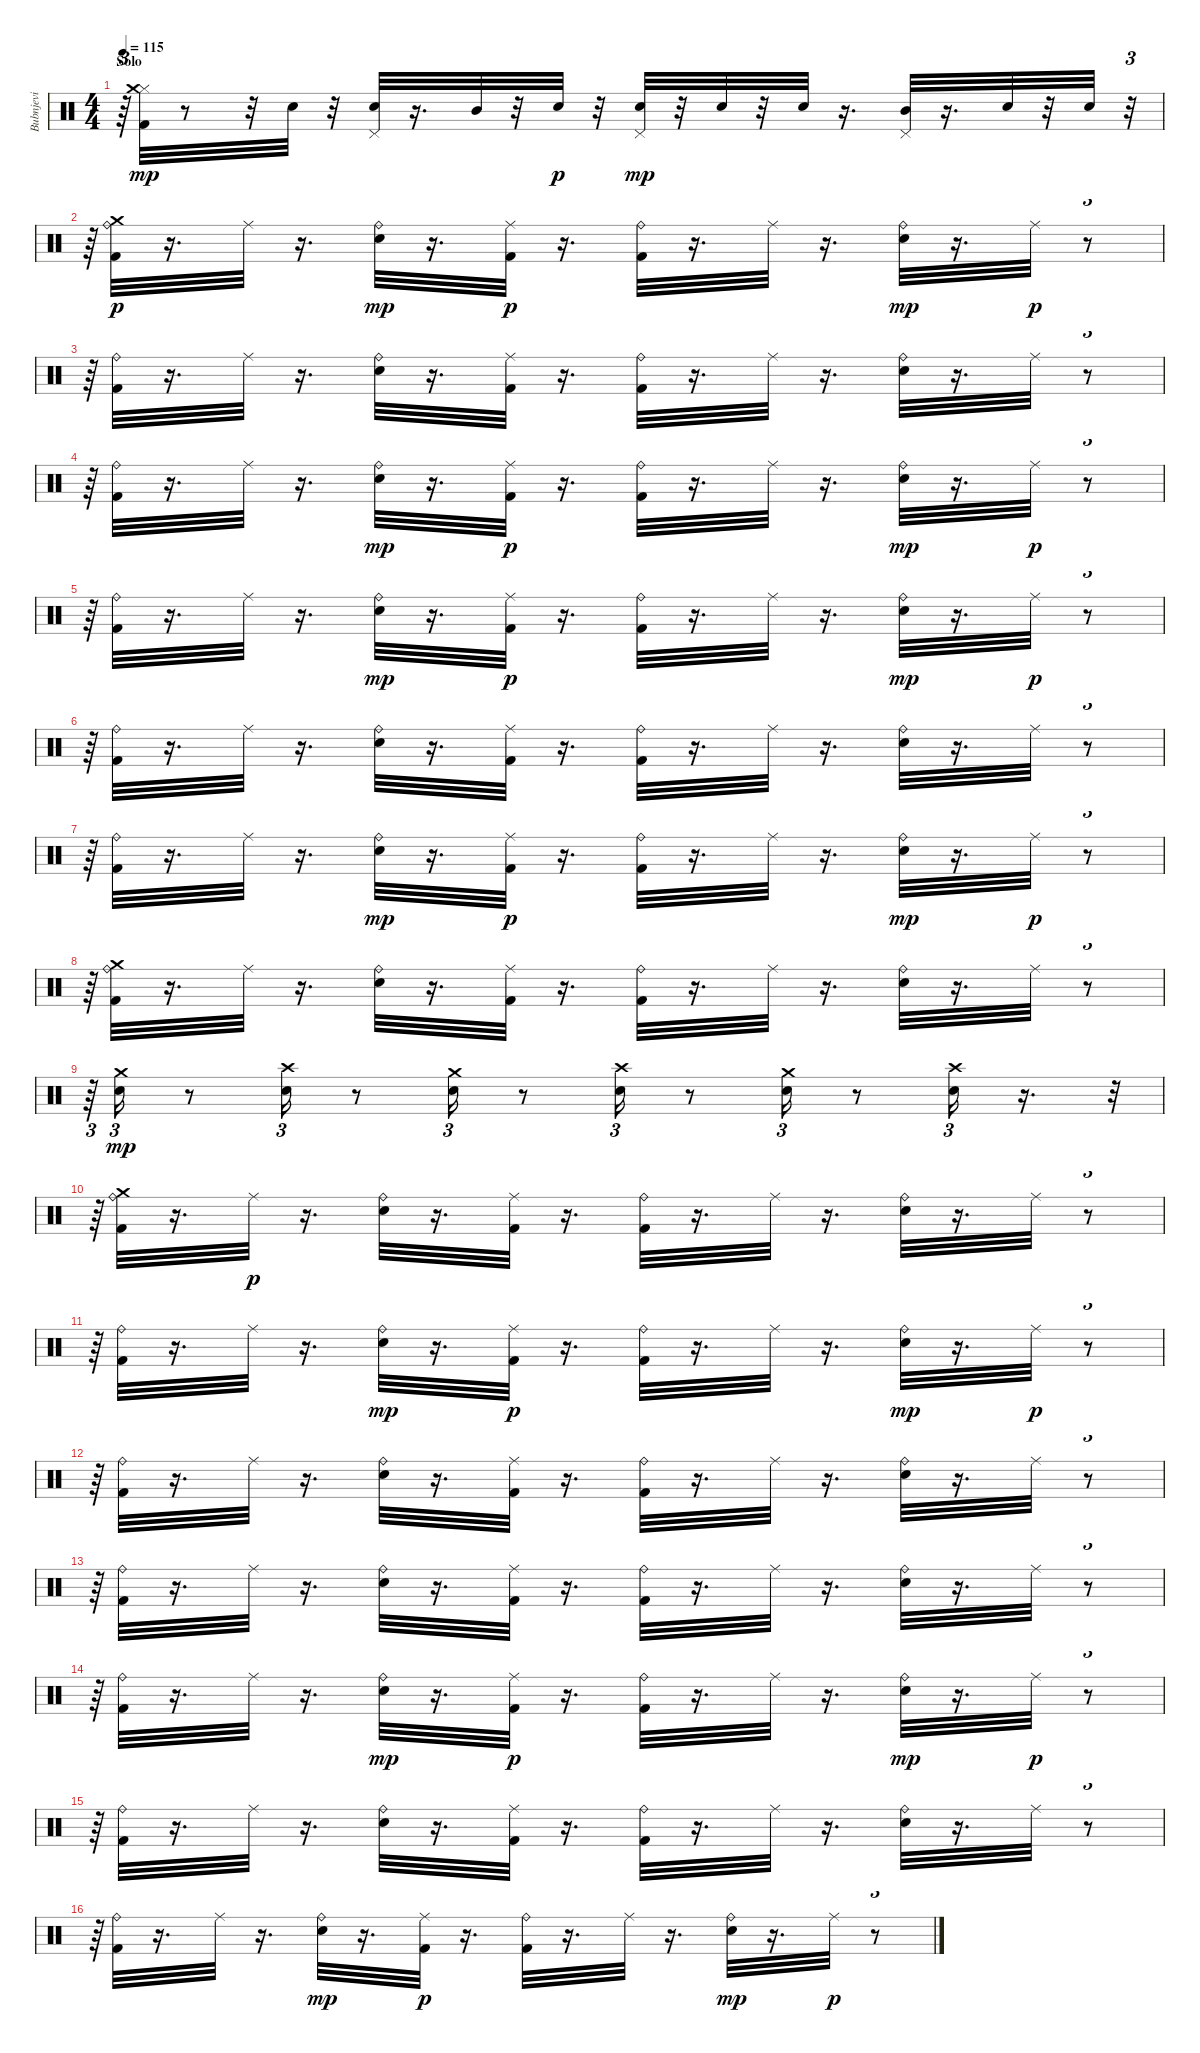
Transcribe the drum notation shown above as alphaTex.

\track ("Bubnjevi" "Bubnjevi") {instrument percussion}
\staff {score}
\articulation defaults
\ts (4 4)
\section ("" "Solo")
\tempo 115
\clef neutral
\ks c
r.64{tu (3 2) dy p} ("Kick (hit) 2" "Hi-Hat (closed)" "Crash medium (hit)").32{dy mp} r.8 r.32 "Electric Snare (hit)".32 r.32 ("Pedal Hi-Hat (hit)" "Electric Snare (hit)").32 r.16{d} "Mid Tom (hit)".32 r.32 "Electric Snare (hit)".32{dy p} r.32 ("Electric Snare (hit)" "Pedal Hi-Hat (hit)").32{dy mp} r.32 "Electric Snare (hit)".32 r.32 "Electric Snare (hit)".32 r.16{d} ("Mid Tom (hit)" "Pedal Hi-Hat (hit)").32 r.16{d} "Electric Snare (hit)".32 r.32 "Electric Snare (hit)".32 r.32{tu (3 2)} |
r.64{tu (3 2)} ("Crash medium (hit)" "Ride (bell)" "Kick (hit) 2").32{dy p} r.16{d} "Ride (middle)".32 r.16{d} ("Ride (bell)" "Electric Snare (hit)").32{dy mp} r.16{d} ("Ride (middle)" "Kick (hit) 2").32{dy p} r.16{d} ("Ride (bell)" "Kick (hit) 2").32 r.16{d} "Ride (middle)".32 r.16{d} ("Ride (bell)" "Electric Snare (hit)").32{dy mp} r.16{d} "Ride (middle)".32{dy p} r.8{tu (3 2)} |
r.64{tu (3 2)} ("Kick (hit) 2" "Ride (bell)").32 r.16{d} "Ride (middle)".32 r.16{d} ("Electric Snare (hit)" "Ride (bell)").32 r.16{d} ("Kick (hit) 2" "Ride (middle)").32 r.16{d} ("Kick (hit) 2" "Ride (bell)").32 r.16{d} "Ride (middle)".32 r.16{d} ("Electric Snare (hit)" "Ride (bell)").32 r.16{d} "Ride (middle)".32 r.8{tu (3 2)} |
r.64{tu (3 2)} ("Ride (bell)" "Kick (hit) 2").32 r.16{d} "Ride (middle)".32 r.16{d} ("Ride (bell)" "Electric Snare (hit)").32{dy mp} r.16{d} ("Ride (middle)" "Kick (hit) 2").32{dy p} r.16{d} ("Ride (bell)" "Kick (hit) 2").32 r.16{d} "Ride (middle)".32 r.16{d} ("Ride (bell)" "Electric Snare (hit)").32{dy mp} r.16{d} "Ride (middle)".32{dy p} r.8{tu (3 2)} |
r.64{tu (3 2)} ("Ride (bell)" "Kick (hit) 2").32 r.16{d} "Ride (middle)".32 r.16{d} ("Ride (bell)" "Electric Snare (hit)").32{dy mp} r.16{d} ("Ride (middle)" "Kick (hit) 2").32{dy p} r.16{d} ("Ride (bell)" "Kick (hit) 2").32 r.16{d} "Ride (middle)".32 r.16{d} ("Ride (bell)" "Electric Snare (hit)").32{dy mp} r.16{d} "Ride (middle)".32{dy p} r.8{tu (3 2)} |
r.64{tu (3 2)} ("Kick (hit) 2" "Ride (bell)").32 r.16{d} "Ride (middle)".32 r.16{d} ("Electric Snare (hit)" "Ride (bell)").32 r.16{d} ("Kick (hit) 2" "Ride (middle)").32 r.16{d} ("Kick (hit) 2" "Ride (bell)").32 r.16{d} "Ride (middle)".32 r.16{d} ("Electric Snare (hit)" "Ride (bell)").32 r.16{d} "Ride (middle)".32 r.8{tu (3 2)} |
r.64{tu (3 2)} ("Ride (bell)" "Kick (hit) 2").32 r.16{d} "Ride (middle)".32 r.16{d} ("Ride (bell)" "Electric Snare (hit)").32{dy mp} r.16{d} ("Ride (middle)" "Kick (hit) 2").32{dy p} r.16{d} ("Ride (bell)" "Kick (hit) 2").32 r.16{d} "Ride (middle)".32 r.16{d} ("Ride (bell)" "Electric Snare (hit)").32{dy mp} r.16{d} "Ride (middle)".32{dy p} r.8{tu (3 2)} |
r.64{tu (3 2)} ("Crash medium (hit)" "Kick (hit) 2" "Ride (bell)").32 r.16{d} "Ride (middle)".32 r.16{d} ("Electric Snare (hit)" "Ride (bell)").32 r.16{d} ("Kick (hit) 2" "Ride (middle)").32 r.16{d} ("Kick (hit) 2" "Ride (bell)").32 r.16{d} "Ride (middle)".32 r.16{d} ("Electric Snare (hit)" "Ride (bell)").32 r.16{d} "Ride (middle)".32 r.8{tu (3 2)} |
r.64{tu (3 2)} ("Crash medium (hit)" "Electric Snare (hit)").16{tu (3 2) dy mp} r.8 ("Crash high (hit)" "Electric Snare (hit)").16{tu (3 2)} r.8 ("Crash medium (hit)" "Electric Snare (hit)").16{tu (3 2)} r.8 ("Crash high (hit)" "Electric Snare (hit)").16{tu (3 2)} r.8 ("Crash medium (hit)" "Electric Snare (hit)").16{tu (3 2)} r.8 ("Crash high (hit)" "Electric Snare (hit)").16{tu (3 2)} r.16{d} r.32{tu (3 2)} |
r.64{tu (3 2)} ("Kick (hit) 2" "Ride (bell)" "Crash medium (hit)").32 r.16{d} "Ride (middle)".32{dy p} r.16{d} ("Electric Snare (hit)" "Ride (bell)").32 r.16{d} ("Kick (hit) 2" "Ride (middle)").32 r.16{d} ("Kick (hit) 2" "Ride (bell)").32 r.16{d} "Ride (middle)".32 r.16{d} ("Electric Snare (hit)" "Ride (bell)").32 r.16{d} "Ride (middle)".32 r.8{tu (3 2)} |
r.64{tu (3 2)} ("Ride (bell)" "Kick (hit) 2").32 r.16{d} "Ride (middle)".32 r.16{d} ("Ride (bell)" "Electric Snare (hit)").32{dy mp} r.16{d} ("Ride (middle)" "Kick (hit) 2").32{dy p} r.16{d} ("Ride (bell)" "Kick (hit) 2").32 r.16{d} "Ride (middle)".32 r.16{d} ("Ride (bell)" "Electric Snare (hit)").32{dy mp} r.16{d} "Ride (middle)".32{dy p} r.8{tu (3 2)} |
r.64{tu (3 2)} ("Kick (hit) 2" "Ride (bell)").32 r.16{d} "Ride (middle)".32 r.16{d} ("Electric Snare (hit)" "Ride (bell)").32 r.16{d} ("Kick (hit) 2" "Ride (middle)").32 r.16{d} ("Kick (hit) 2" "Ride (bell)").32 r.16{d} "Ride (middle)".32 r.16{d} ("Electric Snare (hit)" "Ride (bell)").32 r.16{d} "Ride (middle)".32 r.8{tu (3 2)} |
r.64{tu (3 2)} ("Kick (hit) 2" "Ride (bell)").32 r.16{d} "Ride (middle)".32 r.16{d} ("Electric Snare (hit)" "Ride (bell)").32 r.16{d} ("Kick (hit) 2" "Ride (middle)").32 r.16{d} ("Kick (hit) 2" "Ride (bell)").32 r.16{d} "Ride (middle)".32 r.16{d} ("Electric Snare (hit)" "Ride (bell)").32 r.16{d} "Ride (middle)".32 r.8{tu (3 2)} |
r.64{tu (3 2)} ("Ride (bell)" "Kick (hit) 2").32 r.16{d} "Ride (middle)".32 r.16{d} ("Ride (bell)" "Electric Snare (hit)").32{dy mp} r.16{d} ("Ride (middle)" "Kick (hit) 2").32{dy p} r.16{d} ("Ride (bell)" "Kick (hit) 2").32 r.16{d} "Ride (middle)".32 r.16{d} ("Ride (bell)" "Electric Snare (hit)").32{dy mp} r.16{d} "Ride (middle)".32{dy p} r.8{tu (3 2)} |
r.64{tu (3 2)} ("Kick (hit) 2" "Ride (bell)").32 r.16{d} "Ride (middle)".32 r.16{d} ("Electric Snare (hit)" "Ride (bell)").32 r.16{d} ("Kick (hit) 2" "Ride (middle)").32 r.16{d} ("Kick (hit) 2" "Ride (bell)").32 r.16{d} "Ride (middle)".32 r.16{d} ("Electric Snare (hit)" "Ride (bell)").32 r.16{d} "Ride (middle)".32 r.8{tu (3 2)} |
r.64{tu (3 2)} ("Ride (bell)" "Kick (hit) 2").32 r.16{d} "Ride (middle)".32 r.16{d} ("Ride (bell)" "Electric Snare (hit)").32{dy mp} r.16{d} ("Ride (middle)" "Kick (hit) 2").32{dy p} r.16{d} ("Ride (bell)" "Kick (hit) 2").32 r.16{d} "Ride (middle)".32 r.16{d} ("Ride (bell)" "Electric Snare (hit)").32{dy mp} r.16{d} "Ride (middle)".32{dy p} r.8{tu (3 2)}
